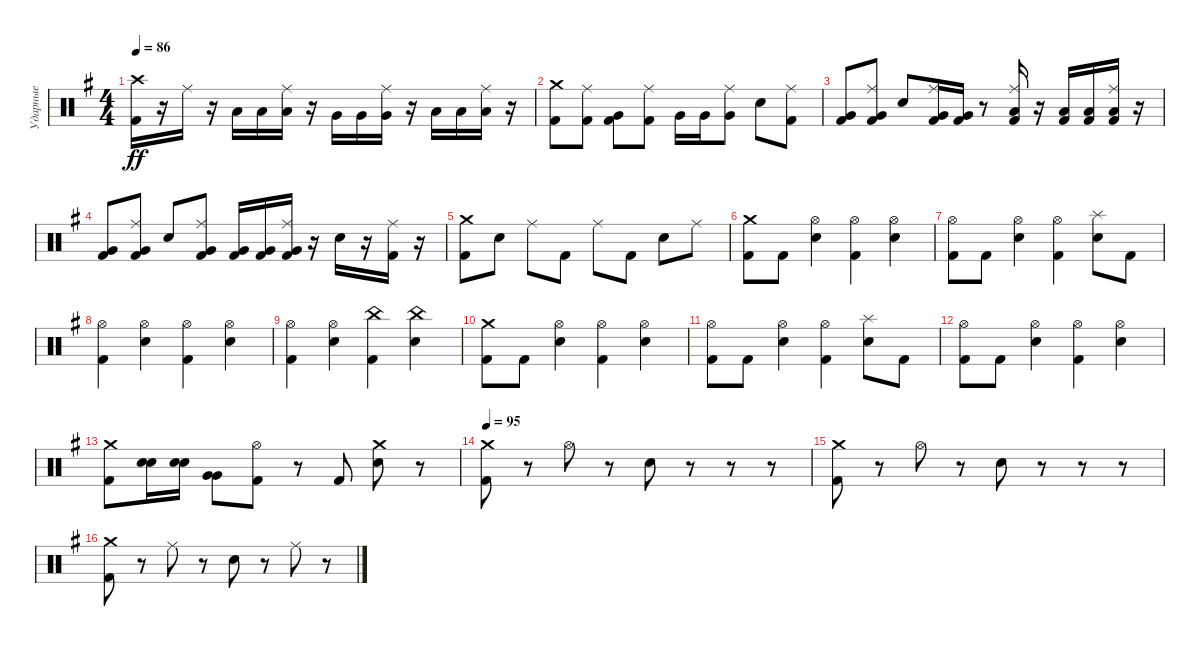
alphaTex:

\track ("Ударные" "Ударные") {instrument percussion}
\staff {score}
\articulation defaults
\ts (4 4)
\tempo 86
\clef neutral
\ks eminor
("Crash high (hit)" "Kick (hit) 2").16{dy ff} r.16 "Ride (middle)".16 r.16 "Low Tom (hit)".16 "Low Tom (hit)".16 ("Low Tom (hit)" "Ride (middle)").16 r.16 "Very Low Tom (hit)".16 "Very Low Tom (hit)".16 ("Very Low Tom (hit)" "Ride (middle)").16 r.16 "Low Floor Tom (hit)".16 "Low Floor Tom (hit)".16 ("Low Floor Tom (hit)" "Ride (middle)").16 r.16 |
("Crash medium (hit)" "Kick (hit) 2").8 ("Ride (middle)" "Kick (hit) 2").8 ("Very Low Tom (hit)" "Kick (hit) 2").8 ("Ride (middle)" "Kick (hit) 2").8 "Very Low Tom (hit)".16 "Very Low Tom (hit)".16 ("Ride (middle)" "Very Low Tom (hit)").8 "Electric Snare (hit)".8 ("Ride (middle)" "Kick (hit) 2").8 |
("Very Low Tom (hit)" "Kick (hit) 2").8 ("Ride (middle)" "Very Low Tom (hit)" "Kick (hit) 2").8 "Electric Snare (hit)".8 ("Ride (middle)" "Very Low Tom (hit)" "Kick (hit) 2").16 ("Very Low Tom (hit)" "Kick (hit) 2").16 r.8 ("Ride (middle)" "Low Floor Tom (hit)" "Kick (hit) 2").16 r.16 ("Low Floor Tom (hit)" "Kick (hit) 2").16 ("Low Floor Tom (hit)" "Kick (hit) 2").16 ("Ride (middle)" "Low Floor Tom (hit)" "Kick (hit) 2").16 r.16 |
("Very Low Tom (hit)" "Kick (hit) 2").8 ("Ride (middle)" "Very Low Tom (hit)" "Kick (hit) 2").8 "Electric Snare (hit)".8 ("Ride (middle)" "Very Low Tom (hit)" "Kick (hit) 2").8 ("Very Low Tom (hit)" "Kick (hit) 2").16 ("Very Low Tom (hit)" "Kick (hit) 2").16 ("Ride (middle)" "Very Low Tom (hit)" "Kick (hit) 2").16 r.16 "Electric Snare (hit)".16 r.16 ("Ride (middle)" "Kick (hit) 2").16 r.16 |
("Crash medium (hit)" "Kick (hit) 2").8 "Electric Snare (hit)".8 "Ride (middle)".8 "Kick (hit) 2".8 "Ride (middle)".8 "Kick (hit) 2".8 "Electric Snare (hit)".8 "Ride (middle)".8 |
("Crash medium (hit)" "Kick (hit) 2").8 "Kick (hit) 2".8 ("Hi-Hat (open)" "Electric Snare (hit)").4 ("Hi-Hat (open)" "Kick (hit) 2").4 ("Hi-Hat (open)" "Electric Snare (hit)").4 |
("Hi-Hat (open)" "Kick (hit) 2").8 "Kick (hit) 2".8 ("Hi-Hat (open)" "Electric Snare (hit)").4 ("Hi-Hat (open)" "Kick (hit) 2").4 ("Splash (hit)" "Electric Snare (hit)").8 "Kick (hit) 2".8 |
("Hi-Hat (open)" "Kick (hit) 2").4 ("Hi-Hat (open)" "Electric Snare (hit)").4 ("Hi-Hat (open)" "Kick (hit) 2").4 ("Hi-Hat (open)" "Electric Snare (hit)").4 |
("Hi-Hat (open)" "Kick (hit) 2").4 ("Hi-Hat (open)" "Electric Snare (hit)").4 ("China (hit)" "Kick (hit) 2").4 ("China (hit)" "Electric Snare (hit)").4 |
("Crash medium (hit)" "Kick (hit) 2").8 "Kick (hit) 2".8 ("Hi-Hat (open)" "Electric Snare (hit)").4 ("Hi-Hat (open)" "Kick (hit) 2").4 ("Hi-Hat (open)" "Electric Snare (hit)").4 |
("Hi-Hat (open)" "Kick (hit) 2").8 "Kick (hit) 2".8 ("Hi-Hat (open)" "Electric Snare (hit)").4 ("Hi-Hat (open)" "Kick (hit) 2").4 ("Splash (hit)" "Electric Snare (hit)").8 "Kick (hit) 2".8 |
("Hi-Hat (open)" "Kick (hit) 2").8 "Kick (hit) 2".8 ("Hi-Hat (open)" "Electric Snare (hit)").4 ("Hi-Hat (open)" "Kick (hit) 2").4 ("Hi-Hat (open)" "Electric Snare (hit)").4 |
("Crash medium (hit)" "Kick (hit) 2").8 ("Electric Snare (hit)" "Electric Snare (hit)").16 ("Electric Snare (hit)" "Electric Snare (hit)").16 ("Very Low Tom (hit)" "Very Low Tom (hit)").8 ("Hi-Hat (open)" "Kick (hit) 2").8 r.8 "Kick (hit) 2".8 ("Crash medium (hit)" "Electric Snare (hit)").8 r.8 |
\tempo 95
("Crash medium (hit)" "Kick (hit) 2").8 r.8 "Hi-Hat (open)".8 r.8 "Electric Snare (hit)".8 r.8 r.8 r.8 |
("Crash medium (hit)" "Kick (hit) 2").8 r.8 "Hi-Hat (open)".8 r.8 "Electric Snare (hit)".8 r.8 r.8 r.8 |
("Crash medium (hit)" "Kick (hit) 2").8 r.8 "Ride (middle)".8 r.8 "Electric Snare (hit)".8 r.8 "Ride (middle)".8 r.8
